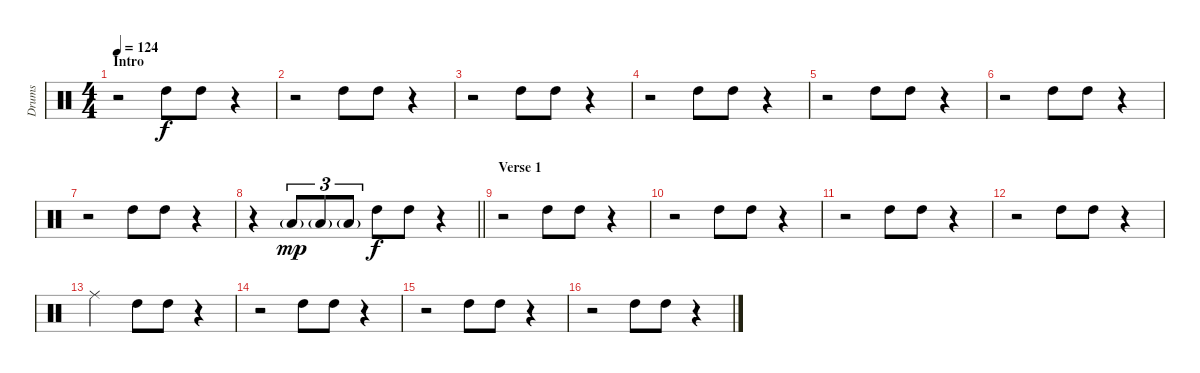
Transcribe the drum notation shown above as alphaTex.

\track ("Drums" "Drums") {instrument percussion}
\staff {score}
\articulation defaults
\ts (4 4)
\section ("" "Intro")
\tempo 124
\clef neutral
\ks c
r.2{dy f} "High Tom (hit)".8 "High Tom (hit)".8 r.4 |
r.2 "High Tom (hit)".8 "High Tom (hit)".8 r.4 |
r.2 "High Tom (hit)".8 "High Tom (hit)".8 r.4 |
r.2 "High Tom (hit)".8 "High Tom (hit)".8 r.4 |
r.2 "High Tom (hit)".8 "High Tom (hit)".8 r.4 |
r.2 "High Tom (hit)".8 "High Tom (hit)".8 r.4 |
r.2 "High Tom (hit)".8 "High Tom (hit)".8 r.4 |
\barLineRight lightlight
r.4 "Low Tom (hit)"{g}.8{tu (3 2) dy mp} "Low Tom (hit)"{g}.8{tu (3 2)} "Low Tom (hit)"{g}.8{tu (3 2)} "High Tom (hit)".8{dy f} "High Tom (hit)".8 r.4 |
\section ("" "Verse 1")
r.2 "High Tom (hit)".8 "High Tom (hit)".8 r.4 |
r.2 "High Tom (hit)".8 "High Tom (hit)".8 r.4 |
r.2 "High Tom (hit)".8 "High Tom (hit)".8 r.4 |
r.2 "High Tom (hit)".8 "High Tom (hit)".8 r.4 |
"Ride (middle)".2 "High Tom (hit)".8 "High Tom (hit)".8 r.4 |
r.2 "High Tom (hit)".8 "High Tom (hit)".8 r.4 |
r.2 "High Tom (hit)".8 "High Tom (hit)".8 r.4 |
r.2 "High Tom (hit)".8 "High Tom (hit)".8 r.4
